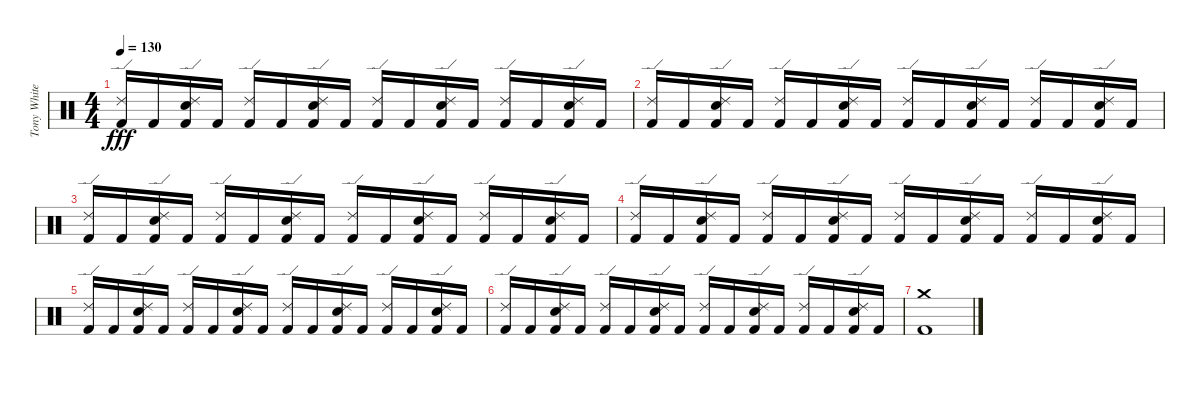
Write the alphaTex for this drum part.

\track ("Tony White" "Tony White") {instrument percussion}
\staff {score}
\articulation defaults
\ts (4 4)
\tempo 130
\clef neutral
\ks c
("Ride (edge) 2" "Kick (hit) 2").16{dy fff} "Kick (hit) 2".16 ("Ride (edge) 2" "Electric Snare (hit)" "Kick (hit) 2").16 "Kick (hit) 2".16 ("Ride (edge) 2" "Kick (hit) 2").16 "Kick (hit) 2".16 ("Ride (edge) 2" "Electric Snare (hit)" "Kick (hit) 2").16 "Kick (hit) 2".16 ("Ride (edge) 2" "Kick (hit) 2").16 "Kick (hit) 2".16 ("Ride (edge) 2" "Electric Snare (hit)" "Kick (hit) 2").16 "Kick (hit) 2".16 ("Ride (edge) 2" "Kick (hit) 2").16 "Kick (hit) 2".16 ("Ride (edge) 2" "Electric Snare (hit)" "Kick (hit) 2").16 "Kick (hit) 2".16 |
("Ride (edge) 2" "Kick (hit) 2").16 "Kick (hit) 2".16 ("Ride (edge) 2" "Electric Snare (hit)" "Kick (hit) 2").16 "Kick (hit) 2".16 ("Ride (edge) 2" "Kick (hit) 2").16 "Kick (hit) 2".16 ("Ride (edge) 2" "Electric Snare (hit)" "Kick (hit) 2").16 "Kick (hit) 2".16 ("Ride (edge) 2" "Kick (hit) 2").16 "Kick (hit) 2".16 ("Ride (edge) 2" "Electric Snare (hit)" "Kick (hit) 2").16 "Kick (hit) 2".16 ("Ride (edge) 2" "Kick (hit) 2").16 "Kick (hit) 2".16 ("Ride (edge) 2" "Electric Snare (hit)" "Kick (hit) 2").16 "Kick (hit) 2".16 |
("Ride (edge) 2" "Kick (hit) 2").16 "Kick (hit) 2".16 ("Ride (edge) 2" "Electric Snare (hit)" "Kick (hit) 2").16 "Kick (hit) 2".16 ("Ride (edge) 2" "Kick (hit) 2").16 "Kick (hit) 2".16 ("Ride (edge) 2" "Electric Snare (hit)" "Kick (hit) 2").16 "Kick (hit) 2".16 ("Ride (edge) 2" "Kick (hit) 2").16 "Kick (hit) 2".16 ("Ride (edge) 2" "Electric Snare (hit)" "Kick (hit) 2").16 "Kick (hit) 2".16 ("Ride (edge) 2" "Kick (hit) 2").16 "Kick (hit) 2".16 ("Ride (edge) 2" "Electric Snare (hit)" "Kick (hit) 2").16 "Kick (hit) 2".16 |
("Ride (edge) 2" "Kick (hit) 2").16 "Kick (hit) 2".16 ("Ride (edge) 2" "Electric Snare (hit)" "Kick (hit) 2").16 "Kick (hit) 2".16 ("Ride (edge) 2" "Kick (hit) 2").16 "Kick (hit) 2".16 ("Ride (edge) 2" "Electric Snare (hit)" "Kick (hit) 2").16 "Kick (hit) 2".16 ("Ride (edge) 2" "Kick (hit) 2").16 "Kick (hit) 2".16 ("Ride (edge) 2" "Electric Snare (hit)" "Kick (hit) 2").16 "Kick (hit) 2".16 ("Ride (edge) 2" "Kick (hit) 2").16 "Kick (hit) 2".16 ("Ride (edge) 2" "Electric Snare (hit)" "Kick (hit) 2").16 "Kick (hit) 2".16 |
("Ride (edge) 2" "Kick (hit) 2").16 "Kick (hit) 2".16 ("Ride (edge) 2" "Electric Snare (hit)" "Kick (hit) 2").16 "Kick (hit) 2".16 ("Ride (edge) 2" "Kick (hit) 2").16 "Kick (hit) 2".16 ("Ride (edge) 2" "Electric Snare (hit)" "Kick (hit) 2").16 "Kick (hit) 2".16 ("Ride (edge) 2" "Kick (hit) 2").16 "Kick (hit) 2".16 ("Ride (edge) 2" "Electric Snare (hit)" "Kick (hit) 2").16 "Kick (hit) 2".16 ("Ride (edge) 2" "Kick (hit) 2").16 "Kick (hit) 2".16 ("Ride (edge) 2" "Electric Snare (hit)" "Kick (hit) 2").16 "Kick (hit) 2".16 |
("Ride (edge) 2" "Kick (hit) 2").16 "Kick (hit) 2".16 ("Ride (edge) 2" "Electric Snare (hit)" "Kick (hit) 2").16 "Kick (hit) 2".16 ("Ride (edge) 2" "Kick (hit) 2").16 "Kick (hit) 2".16 ("Ride (edge) 2" "Electric Snare (hit)" "Kick (hit) 2").16 "Kick (hit) 2".16 ("Ride (edge) 2" "Kick (hit) 2").16 "Kick (hit) 2".16 ("Ride (edge) 2" "Electric Snare (hit)" "Kick (hit) 2").16 "Kick (hit) 2".16 ("Ride (edge) 2" "Kick (hit) 2").16 "Kick (hit) 2".16 ("Ride (edge) 2" "Electric Snare (hit)" "Kick (hit) 2").16 "Kick (hit) 2".16 |
("Crash medium (hit)" "Kick (hit) 2").1
